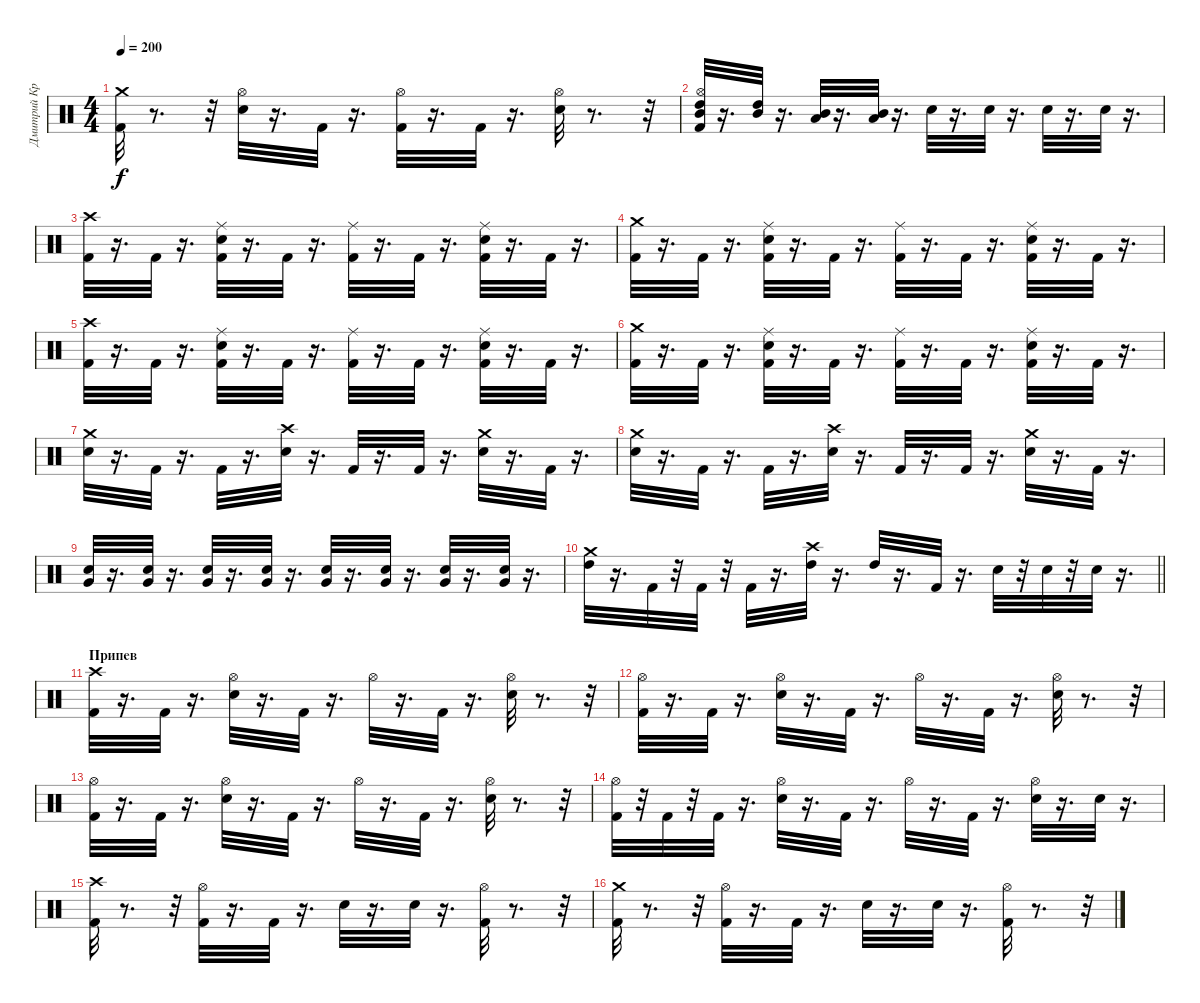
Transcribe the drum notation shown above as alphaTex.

\track ("Дмитрий Кривенков" "Дмитрий Кр") {instrument percussion}
\staff {score}
\articulation defaults
\ts (4 4)
\tempo 200
\clef neutral
\ks c
("Crash medium (hit)" "Kick (hit) 2").32{dy f} r.8{d} r.32 ("Hi-Hat (open)" "Electric Snare (hit)").32 r.16{d} "Kick (hit) 2".32 r.16{d} ("Hi-Hat (open)" "Kick (hit) 2").32 r.16{d} "Kick (hit) 2".32 r.16{d} ("Hi-Hat (open)" "Electric Snare (hit)").32 r.8{d} r.32 |
("Mid Tom (hit)" "High Tom (hit)" "Hi-Hat (open)" "Kick (hit) 2").32 r.16{d} ("Mid Tom (hit)" "High Tom (hit)").32 r.16{d} ("Low Tom (hit)" "Mid Tom (hit)").32 r.16{d} ("Low Tom (hit)" "Mid Tom (hit)").32 r.16{d} "Electric Snare (hit)".32 r.16{d} "Electric Snare (hit)".32 r.16{d} "Electric Snare (hit)".32 r.16{d} "Electric Snare (hit)".32 r.16{d} |
("Crash high (hit)" "Kick (hit) 2").32 r.16{d} "Kick (hit) 2".32 r.16{d} ("Ride (middle)" "Electric Snare (hit)" "Kick (hit) 2").32 r.16{d} "Kick (hit) 2".32 r.16{d} ("Ride (middle)" "Kick (hit) 2").32 r.16{d} "Kick (hit) 2".32 r.16{d} ("Ride (middle)" "Kick (hit) 2" "Electric Snare (hit)").32 r.16{d} "Kick (hit) 2".32 r.16{d} |
("Crash medium (hit)" "Kick (hit) 2").32 r.16{d} "Kick (hit) 2".32 r.16{d} ("Electric Snare (hit)" "Kick (hit) 2" "Ride (middle)").32 r.16{d} "Kick (hit) 2".32 r.16{d} ("Ride (middle)" "Kick (hit) 2").32 r.16{d} "Kick (hit) 2".32 r.16{d} ("Ride (middle)" "Kick (hit) 2" "Electric Snare (hit)").32 r.16{d} "Kick (hit) 2".32 r.16{d} |
("Crash high (hit)" "Kick (hit) 2").32 r.16{d} "Kick (hit) 2".32 r.16{d} ("Ride (middle)" "Electric Snare (hit)" "Kick (hit) 2").32 r.16{d} "Kick (hit) 2".32 r.16{d} ("Ride (middle)" "Kick (hit) 2").32 r.16{d} "Kick (hit) 2".32 r.16{d} ("Ride (middle)" "Kick (hit) 2" "Electric Snare (hit)").32 r.16{d} "Kick (hit) 2".32 r.16{d} |
("Crash medium (hit)" "Kick (hit) 2").32 r.16{d} "Kick (hit) 2".32 r.16{d} ("Electric Snare (hit)" "Kick (hit) 2" "Ride (middle)").32 r.16{d} "Kick (hit) 2".32 r.16{d} ("Ride (middle)" "Kick (hit) 2").32 r.16{d} "Kick (hit) 2".32 r.16{d} ("Ride (middle)" "Kick (hit) 2" "Electric Snare (hit)").32 r.16{d} "Kick (hit) 2".32 r.16{d} |
("Crash medium (hit)" "Electric Snare (hit)").32 r.16{d} "Kick (hit) 2".32 r.16{d} "Kick (hit) 2".32 r.16{d} ("Electric Snare (hit)" "Crash high (hit)").32 r.16{d} "Kick (hit) 2".32 r.16{d} "Kick (hit) 2".32 r.16{d} ("Electric Snare (hit)" "Crash medium (hit)").32 r.16{d} "Kick (hit) 2".32 r.16{d} |
("Electric Snare (hit)" "Crash medium (hit)").32 r.16{d} "Kick (hit) 2".32 r.16{d} "Kick (hit) 2".32 r.16{d} ("Electric Snare (hit)" "Crash high (hit)").32 r.16{d} "Kick (hit) 2".32 r.16{d} "Kick (hit) 2".32 r.16{d} ("Electric Snare (hit)" "Crash medium (hit)").32 r.16{d} "Kick (hit) 2".32 r.16{d} |
("Electric Snare (hit)" "Very Low Tom (hit)").32 r.16{d} ("Electric Snare (hit)" "Very Low Tom (hit)").32 r.16{d} ("Electric Snare (hit)" "Very Low Tom (hit)").32 r.16{d} ("Electric Snare (hit)" "Very Low Tom (hit)").32 r.16{d} ("Electric Snare (hit)" "Very Low Tom (hit)").32 r.16{d} ("Electric Snare (hit)" "Very Low Tom (hit)").32 r.16{d} ("Electric Snare (hit)" "Very Low Tom (hit)").32 r.16{d} ("Electric Snare (hit)" "Very Low Tom (hit)").32 r.16{d} |
\barLineRight lightlight
("High Tom (hit)" "Crash medium (hit)").32 r.16{d} "Kick (hit) 2".32 r.32 "Kick (hit) 2".32 r.32 "Kick (hit) 2".32 r.16{d} ("Crash high (hit)" "High Tom (hit)").32 r.16{d} "High Tom (hit)".32 r.16{d} "Kick (hit) 2".32 r.16{d} "Electric Snare (hit)".32 r.32 "Electric Snare (hit)".32 r.32 "Electric Snare (hit)".32 r.16{d} |
\section ("" "Припев")
("Crash high (hit)" "Kick (hit) 2").32 r.16{d} "Kick (hit) 2".32 r.16{d} ("Hi-Hat (open)" "Electric Snare (hit)").32 r.16{d} "Kick (hit) 2".32 r.16{d} "Hi-Hat (open)".32 r.16{d} "Kick (hit) 2".32 r.16{d} ("Hi-Hat (open)" "Electric Snare (hit)").32 r.8{d} r.32 |
("Hi-Hat (open)" "Kick (hit) 2").32 r.16{d} "Kick (hit) 2".32 r.16{d} ("Hi-Hat (open)" "Electric Snare (hit)").32 r.16{d} "Kick (hit) 2".32 r.16{d} "Hi-Hat (open)".32 r.16{d} "Kick (hit) 2".32 r.16{d} ("Hi-Hat (open)" "Electric Snare (hit)").32 r.8{d} r.32 |
("Hi-Hat (open)" "Kick (hit) 2").32 r.16{d} "Kick (hit) 2".32 r.16{d} ("Hi-Hat (open)" "Electric Snare (hit)").32 r.16{d} "Kick (hit) 2".32 r.16{d} "Hi-Hat (open)".32 r.16{d} "Kick (hit) 2".32 r.16{d} ("Hi-Hat (open)" "Electric Snare (hit)").32 r.8{d} r.32 |
("Hi-Hat (open)" "Kick (hit) 2").32 r.32 "Kick (hit) 2".32 r.32 "Kick (hit) 2".32 r.16{d} ("Hi-Hat (open)" "Electric Snare (hit)").32 r.16{d} "Kick (hit) 2".32 r.16{d} "Hi-Hat (open)".32 r.16{d} "Kick (hit) 2".32 r.16{d} ("Hi-Hat (open)" "Electric Snare (hit)").32 r.16{d} "Electric Snare (hit)".32 r.16{d} |
("Crash high (hit)" "Kick (hit) 2").32 r.8{d} r.32 ("Hi-Hat (open)" "Kick (hit) 2").32 r.16{d} "Kick (hit) 2".32 r.16{d} "Electric Snare (hit)".32 r.16{d} "Electric Snare (hit)".32 r.16{d} ("Kick (hit) 2" "Hi-Hat (open)").32 r.8{d} r.32 |
("Crash medium (hit)" "Kick (hit) 2").32 r.8{d} r.32 ("Hi-Hat (open)" "Kick (hit) 2").32 r.16{d} "Kick (hit) 2".32 r.16{d} "Electric Snare (hit)".32 r.16{d} "Electric Snare (hit)".32 r.16{d} ("Hi-Hat (open)" "Kick (hit) 2").32 r.8{d} r.32
